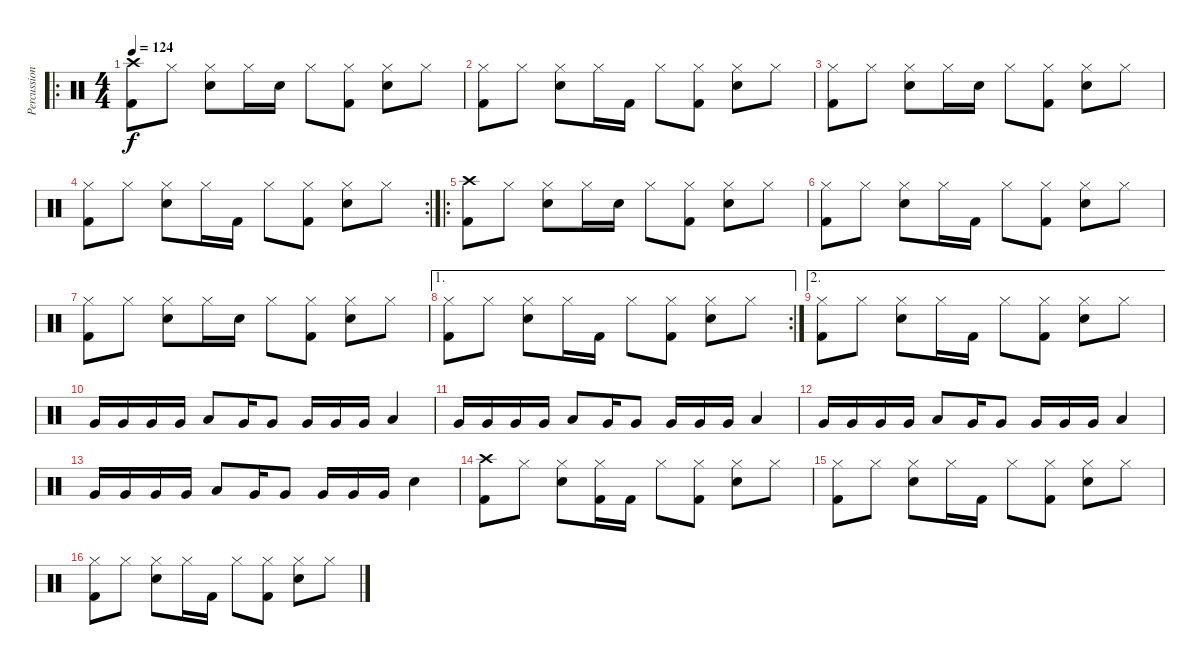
\track ("Percussion" "Percussion") {instrument percussion}
\staff {score}
\articulation defaults
\ro
\ts (4 4)
\tempo 124
\clef neutral
\ks c
("Crash high (hit)" "Kick (hit) 2").8{dy f} "Hi-Hat (closed)".8 ("Hi-Hat (closed)" "Electric Snare (hit)").8 "Hi-Hat (closed)".16 "Electric Snare (hit)".16 "Hi-Hat (closed)".8 ("Hi-Hat (closed)" "Kick (hit) 2").8 ("Hi-Hat (closed)" "Electric Snare (hit)").8 "Hi-Hat (closed)".8 |
("Hi-Hat (closed)" "Kick (hit) 2").8 "Hi-Hat (closed)".8 ("Hi-Hat (closed)" "Electric Snare (hit)").8 "Hi-Hat (closed)".16 "Kick (hit) 2".16 "Hi-Hat (closed)".8 ("Hi-Hat (closed)" "Kick (hit) 2").8 ("Hi-Hat (closed)" "Electric Snare (hit)").8 "Hi-Hat (closed)".8 |
("Hi-Hat (closed)" "Kick (hit) 2").8 "Hi-Hat (closed)".8 ("Hi-Hat (closed)" "Electric Snare (hit)").8 "Hi-Hat (closed)".16 "Electric Snare (hit)".16 "Hi-Hat (closed)".8 ("Hi-Hat (closed)" "Kick (hit) 2").8 ("Hi-Hat (closed)" "Electric Snare (hit)").8 "Hi-Hat (closed)".8 |
\rc 2
("Hi-Hat (closed)" "Kick (hit) 2").8 "Hi-Hat (closed)".8 ("Hi-Hat (closed)" "Electric Snare (hit)").8 "Hi-Hat (closed)".16 "Kick (hit) 2".16 "Hi-Hat (closed)".8 ("Hi-Hat (closed)" "Kick (hit) 2").8 ("Hi-Hat (closed)" "Electric Snare (hit)").8 "Hi-Hat (closed)".8 |
\ro
("Crash high (hit)" "Kick (hit) 2").8 "Hi-Hat (closed)".8 ("Hi-Hat (closed)" "Electric Snare (hit)").8 "Hi-Hat (closed)".16 "Electric Snare (hit)".16 "Hi-Hat (closed)".8 ("Hi-Hat (closed)" "Kick (hit) 2").8 ("Hi-Hat (closed)" "Electric Snare (hit)").8 "Hi-Hat (closed)".8 |
("Hi-Hat (closed)" "Kick (hit) 2").8 "Hi-Hat (closed)".8 ("Hi-Hat (closed)" "Electric Snare (hit)").8 "Hi-Hat (closed)".16 "Kick (hit) 2".16 "Hi-Hat (closed)".8 ("Hi-Hat (closed)" "Kick (hit) 2").8 ("Hi-Hat (closed)" "Electric Snare (hit)").8 "Hi-Hat (closed)".8 |
("Hi-Hat (closed)" "Kick (hit) 2").8 "Hi-Hat (closed)".8 ("Hi-Hat (closed)" "Electric Snare (hit)").8 "Hi-Hat (closed)".16 "Electric Snare (hit)".16 "Hi-Hat (closed)".8 ("Hi-Hat (closed)" "Kick (hit) 2").8 ("Hi-Hat (closed)" "Electric Snare (hit)").8 "Hi-Hat (closed)".8 |
\ae 1
\rc 2
("Hi-Hat (closed)" "Kick (hit) 2").8 "Hi-Hat (closed)".8 ("Hi-Hat (closed)" "Electric Snare (hit)").8 "Hi-Hat (closed)".16 "Kick (hit) 2".16 "Hi-Hat (closed)".8 ("Hi-Hat (closed)" "Kick (hit) 2").8 ("Hi-Hat (closed)" "Electric Snare (hit)").8 "Hi-Hat (closed)".8 |
\ae 2
("Hi-Hat (closed)" "Kick (hit) 2").8 "Hi-Hat (closed)".8 ("Hi-Hat (closed)" "Electric Snare (hit)").8 "Hi-Hat (closed)".16 "Kick (hit) 2".16 "Hi-Hat (closed)".8 ("Hi-Hat (closed)" "Kick (hit) 2").8 ("Hi-Hat (closed)" "Electric Snare (hit)").8 "Hi-Hat (closed)".8 |
"Very Low Tom (hit)".16 "Very Low Tom (hit)".16 "Very Low Tom (hit)".16 "Very Low Tom (hit)".16 "Low Tom (hit)".8 "Very Low Tom (hit)".16 "Very Low Tom (hit)".8 "Very Low Tom (hit)".16 "Very Low Tom (hit)".16 "Very Low Tom (hit)".16 "Low Tom (hit)".4 |
"Very Low Tom (hit)".16 "Very Low Tom (hit)".16 "Very Low Tom (hit)".16 "Very Low Tom (hit)".16 "Low Tom (hit)".8 "Very Low Tom (hit)".16 "Very Low Tom (hit)".8 "Very Low Tom (hit)".16 "Very Low Tom (hit)".16 "Very Low Tom (hit)".16 "Low Tom (hit)".4 |
"Very Low Tom (hit)".16 "Very Low Tom (hit)".16 "Very Low Tom (hit)".16 "Very Low Tom (hit)".16 "Low Tom (hit)".8 "Very Low Tom (hit)".16 "Very Low Tom (hit)".8 "Very Low Tom (hit)".16 "Very Low Tom (hit)".16 "Very Low Tom (hit)".16 "Low Tom (hit)".4 |
"Very Low Tom (hit)".16 "Very Low Tom (hit)".16 "Very Low Tom (hit)".16 "Very Low Tom (hit)".16 "Low Tom (hit)".8 "Very Low Tom (hit)".16 "Very Low Tom (hit)".8 "Very Low Tom (hit)".16 "Very Low Tom (hit)".16 "Very Low Tom (hit)".16 "Electric Snare (hit)".4 |
("Crash high (hit)" "Kick (hit) 2").8 "Hi-Hat (closed)".8 ("Hi-Hat (closed)" "Electric Snare (hit)").8 ("Hi-Hat (closed)" "Kick (hit) 2").16 "Kick (hit) 2".16 "Hi-Hat (closed)".8 ("Hi-Hat (closed)" "Kick (hit) 2").8 ("Hi-Hat (closed)" "Electric Snare (hit)").8 "Hi-Hat (closed)".8 |
("Hi-Hat (closed)" "Kick (hit) 2").8 "Hi-Hat (closed)".8 ("Hi-Hat (closed)" "Electric Snare (hit)").8 "Hi-Hat (closed)".16 "Kick (hit) 2".16 "Hi-Hat (closed)".8 ("Hi-Hat (closed)" "Kick (hit) 2").8 ("Hi-Hat (closed)" "Electric Snare (hit)").8 "Hi-Hat (closed)".8 |
("Hi-Hat (closed)" "Kick (hit) 2").8 "Hi-Hat (closed)".8 ("Hi-Hat (closed)" "Electric Snare (hit)").8 "Hi-Hat (closed)".16 "Kick (hit) 2".16 "Hi-Hat (closed)".8 ("Hi-Hat (closed)" "Kick (hit) 2").8 ("Hi-Hat (closed)" "Electric Snare (hit)").8 "Hi-Hat (closed)".8
